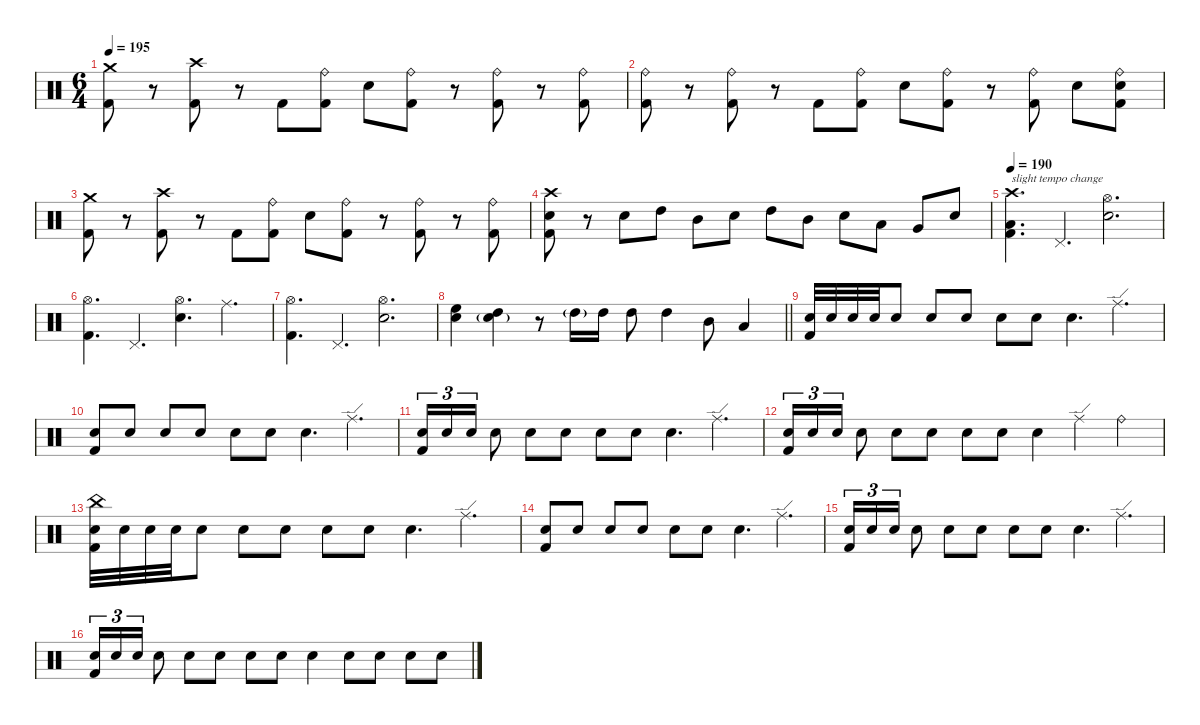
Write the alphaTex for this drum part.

\defaultSystemsLayout 4
\hideDynamics
\bracketExtendMode nobrackets
\singleTrackTrackNamePolicy hidden
\multiTrackTrackNamePolicy hidden
\firstSystemTrackNameMode fullname
\firstSystemTrackNameOrientation horizontal
\otherSystemsTrackNameOrientation horizontal
\track ("Drums" "drm.") {instrument percussion}
\staff {score}
\articulation defaults
\ts (6 4)
\tempo 195
\clef neutral
\ks c
("Crash medium (hit)" "Kick (hit) 2").8{dy f beam Down} r.8{beam Down} ("Crash high (hit)" "Kick (hit) 2").8{beam Down} r.8{beam Down} "Kick (hit) 2".8{beam Down} ("Ride (bell)" "Kick (hit) 2").8{beam Down} "Snare (hit) 2".8{beam Down} ("Ride (bell)" "Kick (hit) 2").8{beam Down} r.8{beam Down} ("Ride (bell)" "Kick (hit) 2").8{beam Down} r.8{beam Down} ("Ride (bell)" "Kick (hit) 2").8{beam Down} |
("Ride (bell)" "Kick (hit) 2").8{beam Down} r.8{beam Down} ("Ride (bell)" "Kick (hit) 2").8{beam Down} r.8{beam Down} "Kick (hit) 2".8{beam Down} ("Ride (bell)" "Kick (hit) 2").8{beam Down} "Snare (hit) 2".8{beam Down} ("Ride (bell)" "Kick (hit) 2").8{beam Down} r.8{beam Down} ("Ride (bell)" "Kick (hit) 2").8{beam Down} "Snare (hit) 2".8{beam Down} ("Ride (bell)" "Snare (hit) 2" "Kick (hit) 2").8{beam Down} |
("Crash medium (hit)" "Kick (hit) 2").8{beam Down} r.8{beam Down} ("Crash high (hit)" "Kick (hit) 2").8{beam Down} r.8{beam Down} "Kick (hit) 2".8{beam Down} ("Ride (bell)" "Kick (hit) 2").8{beam Down} "Snare (hit) 2".8{beam Down} ("Ride (bell)" "Kick (hit) 2").8{beam Down} r.8{beam Down} ("Ride (bell)" "Kick (hit) 2").8{beam Down} r.8{beam Down} ("Ride (bell)" "Kick (hit) 2").8{beam Down} |
("Crash high (hit)" "Snare (hit) 2" "Kick (hit) 2").8{beam Down} r.8{beam Down} "Snare (hit) 2".8{beam Down} "High Tom (hit)".8{beam Down} "Mid Tom (hit)".8{beam Down} "Snare (hit) 2".8{beam Down} "High Tom (hit)".8{beam Down} "Mid Tom (hit)".8{beam Down} "Snare (hit) 2".8{beam Down} "Low Tom (hit)".8{beam Up} "Very Low Tom (hit)".8{beam Up} "Snare (hit) 2".8{beam Up} |
\tempo 190
("Crash high (hit)" "Low Tom (hit)" "Kick (hit) 2").4{d txt "slight tempo change" beam Down} "Pedal Hi-Hat (hit)".4{d beam Up} ("Hi-Hat (open)" "Snare (hit) 2").2{d beam Down} |
("Hi-Hat (open)" "Kick (hit) 2").4{d beam Down} "Pedal Hi-Hat (hit)".4{d beam Up} ("Hi-Hat (open)" "Snare (hit) 2").4{d beam Down} "Ride (middle)".4{d beam Down} |
("Hi-Hat (open)" "Kick (hit) 2").4{d beam Down} "Pedal Hi-Hat (hit)".4{d beam Up} ("Hi-Hat (open)" "Snare (hit) 2").2{d beam Down} |
\barLineRight lightlight
("High Floor Tom (hit)" "Snare (hit) 2").4{beam Down} ("High Tom (hit)" "Snare (hit) 2"{g}).4{beam Down} r.8{beam Down} "High Tom (hit)"{g}.16{dy mf beam Down} "High Tom (hit)".16{dy f beam Down} "High Tom (hit)".8{beam Down} "High Tom (hit)".4{beam Down} "Mid Tom (hit)".8{beam Down} "Low Tom (hit)".4{beam Up} |
("Snare (hit) 2" "Kick (hit) 2").32{dy pp beam Up} "Snare (hit) 2".32{beam Up} "Snare (hit) 2".32{dy p beam Up} "Snare (hit) 2".32{beam Up} "Snare (hit) 2".8{beam Up} "Snare (hit) 2".8{beam Up} "Snare (hit) 2".8{dy pp beam Down} "Snare (hit) 2".8{dy p beam Down} "Snare (hit) 2".8{beam Down} "Snare (hit) 2".4{d dy mf beam Down} "Ride (edge)".4{d dy p beam Down} |
("Snare (hit) 2" "Kick (hit) 2").8{beam Up} "Snare (hit) 2".8{beam Up} "Snare (hit) 2".8{beam Up} "Snare (hit) 2".8{dy pp beam Down} "Snare (hit) 2".8{dy p beam Down} "Snare (hit) 2".8{beam Down} "Snare (hit) 2".4{d dy mf beam Down} "Ride (edge)".4{d dy p beam Down} |
("Snare (hit) 2" "Kick (hit) 2").16{tu (3 2) dy pp beam Up} "Snare (hit) 2".16{tu (3 2) beam Up} "Snare (hit) 2".16{tu (3 2) dy p beam Up} "Snare (hit) 2".8{beam Down} "Snare (hit) 2".8{beam Down} "Snare (hit) 2".8{dy pp beam Down} "Snare (hit) 2".8{dy p beam Down} "Snare (hit) 2".8{beam Down} "Snare (hit) 2".4{d dy mf beam Down} "Ride (edge)".4{d dy p beam Down} |
("Snare (hit) 2" "Kick (hit) 2").16{tu (3 2) dy pp beam Up} "Snare (hit) 2".16{tu (3 2) beam Up} "Snare (hit) 2".16{tu (3 2) dy p beam Up} "Snare (hit) 2".8{beam Down} "Snare (hit) 2".8{beam Down} "Snare (hit) 2".8{dy pp beam Down} "Snare (hit) 2".8{dy p beam Down} "Snare (hit) 2".8{beam Down} "Snare (hit) 2".4{dy mf beam Down} "Ride (edge)".4{dy p beam Down} "Ride (bell)".4{dy f beam Down} |
("China (hit)" "Snare (hit) 2" "Kick (hit) 2").32{dy p beam Down} "Snare (hit) 2".32{dy pp beam Down} "Snare (hit) 2".32{dy p beam Down} "Snare (hit) 2".32{beam Down} "Snare (hit) 2".8{beam Down} "Snare (hit) 2".8{beam Down} "Snare (hit) 2".8{dy pp beam Down} "Snare (hit) 2".8{dy p beam Down} "Snare (hit) 2".8{beam Down} "Snare (hit) 2".4{d dy mf beam Down} "Ride (edge)".4{d dy p beam Down} |
("Snare (hit) 2" "Kick (hit) 2").8{beam Up} "Snare (hit) 2".8{beam Up} "Snare (hit) 2".8{beam Up} "Snare (hit) 2".8{dy pp beam Down} "Snare (hit) 2".8{dy p beam Down} "Snare (hit) 2".8{beam Down} "Snare (hit) 2".4{d dy mf beam Down} "Ride (edge)".4{d dy p beam Down} |
("Snare (hit) 2" "Kick (hit) 2").16{tu (3 2) dy pp beam Up} "Snare (hit) 2".16{tu (3 2) beam Up} "Snare (hit) 2".16{tu (3 2) dy p beam Up} "Snare (hit) 2".8{beam Down} "Snare (hit) 2".8{beam Down} "Snare (hit) 2".8{dy pp beam Down} "Snare (hit) 2".8{dy p beam Down} "Snare (hit) 2".8{beam Down} "Snare (hit) 2".4{d dy mf beam Down} "Ride (edge)".4{d dy p beam Down} |
("Snare (hit) 2" "Kick (hit) 2").16{tu (3 2) dy pp beam Up} "Snare (hit) 2".16{tu (3 2) beam Up} "Snare (hit) 2".16{tu (3 2) dy p beam Up} "Snare (hit) 2".8{beam Down} "Snare (hit) 2".8{beam Down} "Snare (hit) 2".8{dy pp beam Down} "Snare (hit) 2".8{dy p beam Down} "Snare (hit) 2".8{beam Down} "Snare (hit) 2".4{dy mf beam Down} "Snare (hit) 2".8{dy p beam Down} "Snare (hit) 2".8{dy mp beam Down} "Snare (hit) 2".8{dy mf beam Down} "Snare (hit) 2".8{dy f beam Down}
